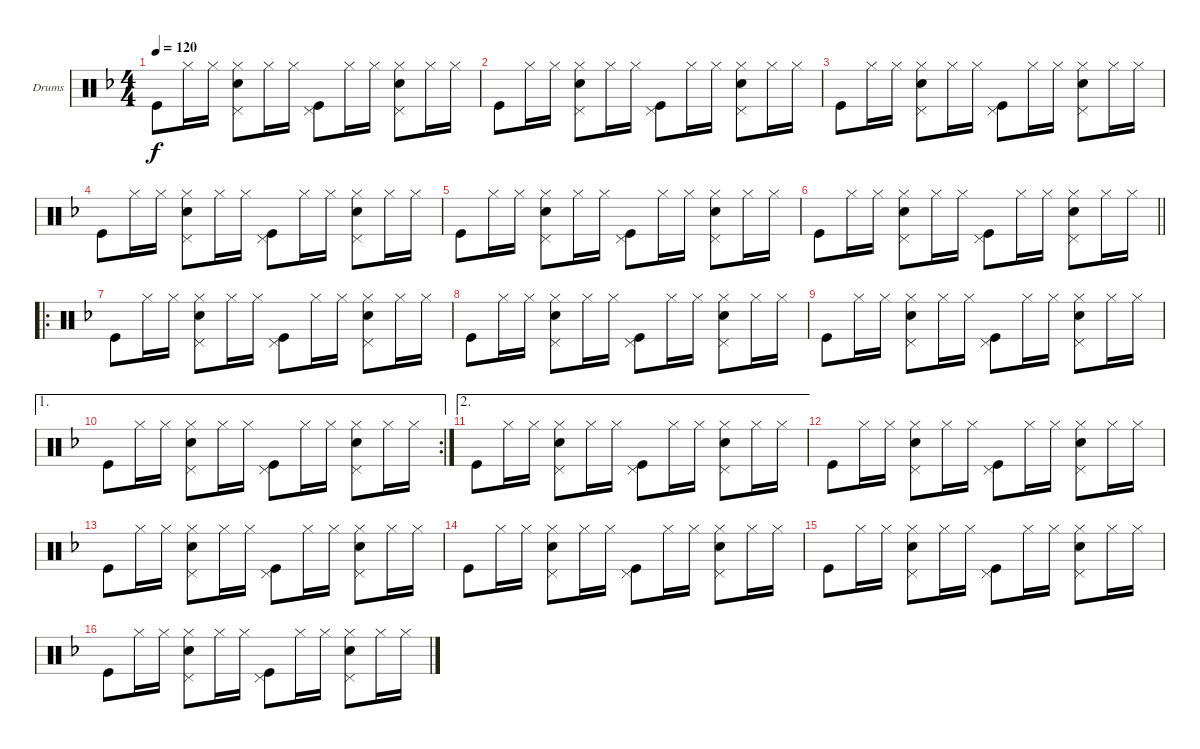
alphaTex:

\defaultSystemsLayout 4
\bracketExtendMode groupsimilarinstruments
\firstSystemTrackNameOrientation horizontal
\otherSystemsTrackNameOrientation horizontal
\track ("Drumkit" "Drums") {instrument percussion}
\staff {score}
\articulation defaults
\ts (4 4)
\tempo 120
\clef neutral
\ks f "Kick (hit)".8{dy f} "Hi-Hat (closed)".16 "Hi-Hat (closed)".16
("Snare (hit) 2" "Pedal Hi-Hat (hit)" "Hi-Hat (closed)").8 "Hi-Hat (closed)".16 "Hi-Hat (closed)".16 ("Kick (hit)" "Pedal Hi-Hat (hit)").8 "Hi-Hat (closed)".16 "Hi-Hat (closed)".16 ("Snare (hit) 2" "Pedal Hi-Hat (hit)" "Hi-Hat (closed)").8 "Hi-Hat (closed)".16 "Hi-Hat (closed)".16 |
"Kick (hit)".8 "Hi-Hat (closed)".16 "Hi-Hat (closed)".16 ("Snare (hit) 2" "Pedal Hi-Hat (hit)" "Hi-Hat (closed)").8 "Hi-Hat (closed)".16 "Hi-Hat (closed)".16 ("Kick (hit)" "Pedal Hi-Hat (hit)").8 "Hi-Hat (closed)".16 "Hi-Hat (closed)".16 ("Snare (hit) 2" "Pedal Hi-Hat (hit)" "Hi-Hat (closed)").8 "Hi-Hat (closed)".16 "Hi-Hat (closed)".16 |
"Kick (hit)".8 "Hi-Hat (closed)".16 "Hi-Hat (closed)".16 ("Snare (hit) 2" "Pedal Hi-Hat (hit)" "Hi-Hat (closed)").8 "Hi-Hat (closed)".16 "Hi-Hat (closed)".16 ("Kick (hit)" "Pedal Hi-Hat (hit)").8 "Hi-Hat (closed)".16 "Hi-Hat (closed)".16 ("Snare (hit) 2" "Pedal Hi-Hat (hit)" "Hi-Hat (closed)").8 "Hi-Hat (closed)".16 "Hi-Hat (closed)".16 |
"Kick (hit)".8 "Hi-Hat (closed)".16 "Hi-Hat (closed)".16 ("Snare (hit) 2" "Pedal Hi-Hat (hit)" "Hi-Hat (closed)").8 "Hi-Hat (closed)".16 "Hi-Hat (closed)".16 ("Kick (hit)" "Pedal Hi-Hat (hit)").8 "Hi-Hat (closed)".16 "Hi-Hat (closed)".16 ("Snare (hit) 2" "Pedal Hi-Hat (hit)" "Hi-Hat (closed)").8 "Hi-Hat (closed)".16 "Hi-Hat (closed)".16 |
"Kick (hit)".8 "Hi-Hat (closed)".16 "Hi-Hat (closed)".16 ("Snare (hit) 2" "Pedal Hi-Hat (hit)" "Hi-Hat (closed)").8 "Hi-Hat (closed)".16 "Hi-Hat (closed)".16 ("Kick (hit)" "Pedal Hi-Hat (hit)").8 "Hi-Hat (closed)".16 "Hi-Hat (closed)".16 ("Snare (hit) 2" "Pedal Hi-Hat (hit)" "Hi-Hat (closed)").8 "Hi-Hat (closed)".16 "Hi-Hat (closed)".16 |
\barLineRight lightlight "Kick (hit)".8 "Hi-Hat (closed)".16 "Hi-Hat (closed)".16
("Snare (hit) 2" "Pedal Hi-Hat (hit)" "Hi-Hat (closed)").8 "Hi-Hat (closed)".16 "Hi-Hat (closed)".16 ("Kick (hit)" "Pedal Hi-Hat (hit)").8 "Hi-Hat (closed)".16 "Hi-Hat (closed)".16 ("Snare (hit) 2" "Pedal Hi-Hat (hit)" "Hi-Hat (closed)").8 "Hi-Hat (closed)".16 "Hi-Hat (closed)".16 |
\ro "Kick (hit)".8 "Hi-Hat (closed)".16 "Hi-Hat (closed)".16
("Snare (hit) 2" "Pedal Hi-Hat (hit)" "Hi-Hat (closed)").8 "Hi-Hat (closed)".16 "Hi-Hat (closed)".16 ("Kick (hit)" "Pedal Hi-Hat (hit)").8 "Hi-Hat (closed)".16 "Hi-Hat (closed)".16 ("Snare (hit) 2" "Pedal Hi-Hat (hit)" "Hi-Hat (closed)").8 "Hi-Hat (closed)".16 "Hi-Hat (closed)".16 |
"Kick (hit)".8 "Hi-Hat (closed)".16 "Hi-Hat (closed)".16 ("Snare (hit) 2" "Pedal Hi-Hat (hit)" "Hi-Hat (closed)").8 "Hi-Hat (closed)".16 "Hi-Hat (closed)".16 ("Kick (hit)" "Pedal Hi-Hat (hit)").8 "Hi-Hat (closed)".16 "Hi-Hat (closed)".16 ("Snare (hit) 2" "Pedal Hi-Hat (hit)" "Hi-Hat (closed)").8 "Hi-Hat (closed)".16 "Hi-Hat (closed)".16 |
"Kick (hit)".8 "Hi-Hat (closed)".16 "Hi-Hat (closed)".16 ("Snare (hit) 2" "Pedal Hi-Hat (hit)" "Hi-Hat (closed)").8 "Hi-Hat (closed)".16 "Hi-Hat (closed)".16 ("Kick (hit)" "Pedal Hi-Hat (hit)").8 "Hi-Hat (closed)".16 "Hi-Hat (closed)".16 ("Snare (hit) 2" "Pedal Hi-Hat (hit)" "Hi-Hat (closed)").8 "Hi-Hat (closed)".16 "Hi-Hat (closed)".16 |
\ae 1
\rc 2 "Kick (hit)".8 "Hi-Hat (closed)".16 "Hi-Hat (closed)".16
("Snare (hit) 2" "Pedal Hi-Hat (hit)" "Hi-Hat (closed)").8 "Hi-Hat (closed)".16 "Hi-Hat (closed)".16 ("Kick (hit)" "Pedal Hi-Hat (hit)").8 "Hi-Hat (closed)".16 "Hi-Hat (closed)".16 ("Snare (hit) 2" "Pedal Hi-Hat (hit)" "Hi-Hat (closed)").8 "Hi-Hat (closed)".16 "Hi-Hat (closed)".16 |
\ae 2 "Kick (hit)".8 "Hi-Hat (closed)".16 "Hi-Hat (closed)".16
("Snare (hit) 2" "Pedal Hi-Hat (hit)" "Hi-Hat (closed)").8 "Hi-Hat (closed)".16 "Hi-Hat (closed)".16 ("Kick (hit)" "Pedal Hi-Hat (hit)").8 "Hi-Hat (closed)".16 "Hi-Hat (closed)".16 ("Snare (hit) 2" "Pedal Hi-Hat (hit)" "Hi-Hat (closed)").8 "Hi-Hat (closed)".16 "Hi-Hat (closed)".16 |
"Kick (hit)".8 "Hi-Hat (closed)".16 "Hi-Hat (closed)".16 ("Snare (hit) 2" "Pedal Hi-Hat (hit)" "Hi-Hat (closed)").8 "Hi-Hat (closed)".16 "Hi-Hat (closed)".16 ("Kick (hit)" "Pedal Hi-Hat (hit)").8 "Hi-Hat (closed)".16 "Hi-Hat (closed)".16 ("Snare (hit) 2" "Pedal Hi-Hat (hit)" "Hi-Hat (closed)").8 "Hi-Hat (closed)".16 "Hi-Hat (closed)".16 |
"Kick (hit)".8 "Hi-Hat (closed)".16 "Hi-Hat (closed)".16 ("Snare (hit) 2" "Pedal Hi-Hat (hit)" "Hi-Hat (closed)").8 "Hi-Hat (closed)".16 "Hi-Hat (closed)".16 ("Kick (hit)" "Pedal Hi-Hat (hit)").8 "Hi-Hat (closed)".16 "Hi-Hat (closed)".16 ("Snare (hit) 2" "Pedal Hi-Hat (hit)" "Hi-Hat (closed)").8 "Hi-Hat (closed)".16 "Hi-Hat (closed)".16 |
"Kick (hit)".8 "Hi-Hat (closed)".16 "Hi-Hat (closed)".16 ("Snare (hit) 2" "Pedal Hi-Hat (hit)" "Hi-Hat (closed)").8 "Hi-Hat (closed)".16 "Hi-Hat (closed)".16 ("Kick (hit)" "Pedal Hi-Hat (hit)").8 "Hi-Hat (closed)".16 "Hi-Hat (closed)".16 ("Snare (hit) 2" "Pedal Hi-Hat (hit)" "Hi-Hat (closed)").8 "Hi-Hat (closed)".16 "Hi-Hat (closed)".16 |
"Kick (hit)".8 "Hi-Hat (closed)".16 "Hi-Hat (closed)".16 ("Snare (hit) 2" "Pedal Hi-Hat (hit)" "Hi-Hat (closed)").8 "Hi-Hat (closed)".16 "Hi-Hat (closed)".16 ("Kick (hit)" "Pedal Hi-Hat (hit)").8 "Hi-Hat (closed)".16 "Hi-Hat (closed)".16 ("Snare (hit) 2" "Pedal Hi-Hat (hit)" "Hi-Hat (closed)").8 "Hi-Hat (closed)".16 "Hi-Hat (closed)".16 |
"Kick (hit)".8 "Hi-Hat (closed)".16 "Hi-Hat (closed)".16 ("Snare (hit) 2" "Pedal Hi-Hat (hit)" "Hi-Hat (closed)").8 "Hi-Hat (closed)".16 "Hi-Hat (closed)".16 ("Kick (hit)" "Pedal Hi-Hat (hit)").8 "Hi-Hat (closed)".16 "Hi-Hat (closed)".16 ("Snare (hit) 2" "Pedal Hi-Hat (hit)" "Hi-Hat (closed)").8 "Hi-Hat (closed)".16 "Hi-Hat (closed)".16
